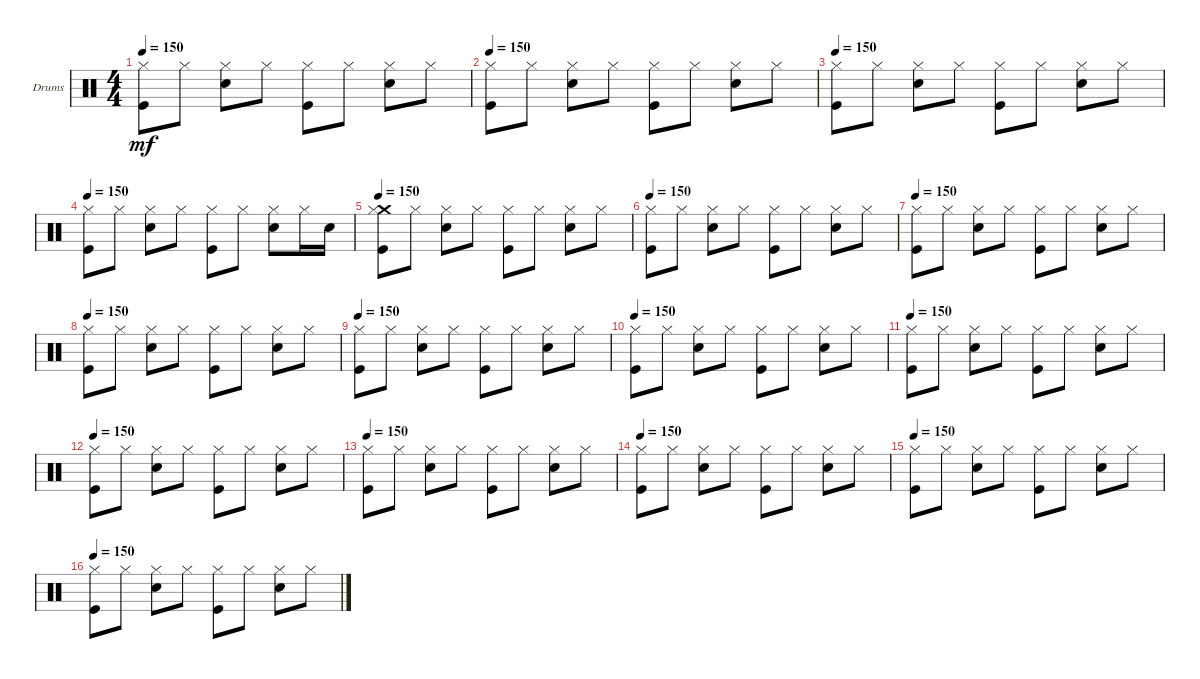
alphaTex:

\bracketExtendMode groupsimilarinstruments
\firstSystemTrackNameOrientation horizontal
\otherSystemsTrackNameOrientation horizontal
\track ("Drums" "Drums") {instrument percussion}
\staff {score}
\articulation defaults
\ts (4 4)
\tempo 150
\clef neutral
\ks c
("Kick (hit)" "Hi-Hat (closed)").8{dy mf} "Hi-Hat (closed)".8 ("Snare (hit) 2" "Hi-Hat (closed)").8 "Hi-Hat (closed)".8 ("Kick (hit)" "Hi-Hat (closed)").8 "Hi-Hat (closed)".8 ("Snare (hit) 2" "Hi-Hat (closed)").8 "Hi-Hat (closed)".8 |
\tempo 150
("Kick (hit)" "Hi-Hat (closed)").8 "Hi-Hat (closed)".8 ("Snare (hit) 2" "Hi-Hat (closed)").8 "Hi-Hat (closed)".8 ("Kick (hit)" "Hi-Hat (closed)").8 "Hi-Hat (closed)".8 ("Snare (hit) 2" "Hi-Hat (closed)").8 "Hi-Hat (closed)".8 |
\tempo 150
("Kick (hit)" "Hi-Hat (closed)").8 "Hi-Hat (closed)".8 ("Snare (hit) 2" "Hi-Hat (closed)").8 "Hi-Hat (closed)".8 ("Kick (hit)" "Hi-Hat (closed)").8 "Hi-Hat (closed)".8 ("Snare (hit) 2" "Hi-Hat (closed)").8 "Hi-Hat (closed)".8 |
\tempo 150
("Kick (hit)" "Hi-Hat (closed)").8 "Hi-Hat (closed)".8 ("Snare (hit) 2" "Hi-Hat (closed)").8 "Hi-Hat (closed)".8 ("Kick (hit)" "Hi-Hat (closed)").8 "Hi-Hat (closed)".8 ("Snare (hit) 2" "Hi-Hat (closed)").8 "Hi-Hat (closed)".16 "Snare (hit) 2".16 |
\tempo 150
("Crash medium (hit)" "Kick (hit)" "Hi-Hat (closed)").8 "Hi-Hat (closed)".8 ("Snare (hit) 2" "Hi-Hat (closed)").8 "Hi-Hat (closed)".8 ("Kick (hit)" "Hi-Hat (closed)").8 "Hi-Hat (closed)".8 ("Snare (hit) 2" "Hi-Hat (closed)").8 "Hi-Hat (closed)".8 |
\tempo 150
("Kick (hit)" "Hi-Hat (closed)").8 "Hi-Hat (closed)".8 ("Snare (hit) 2" "Hi-Hat (closed)").8 "Hi-Hat (closed)".8 ("Kick (hit)" "Hi-Hat (closed)").8 "Hi-Hat (closed)".8 ("Snare (hit) 2" "Hi-Hat (closed)").8 "Hi-Hat (closed)".8 |
\tempo 150
("Kick (hit)" "Hi-Hat (closed)").8 "Hi-Hat (closed)".8 ("Snare (hit) 2" "Hi-Hat (closed)").8 "Hi-Hat (closed)".8 ("Kick (hit)" "Hi-Hat (closed)").8 "Hi-Hat (closed)".8 ("Snare (hit) 2" "Hi-Hat (closed)").8 "Hi-Hat (closed)".8 |
\tempo 150
("Kick (hit)" "Hi-Hat (closed)").8 "Hi-Hat (closed)".8 ("Snare (hit) 2" "Hi-Hat (closed)").8 "Hi-Hat (closed)".8 ("Kick (hit)" "Hi-Hat (closed)").8 "Hi-Hat (closed)".8 ("Snare (hit) 2" "Hi-Hat (closed)").8 "Hi-Hat (closed)".8 |
\tempo 150
("Kick (hit)" "Hi-Hat (closed)").8 "Hi-Hat (closed)".8 ("Snare (hit) 2" "Hi-Hat (closed)").8 "Hi-Hat (closed)".8 ("Kick (hit)" "Hi-Hat (closed)").8 "Hi-Hat (closed)".8 ("Snare (hit) 2" "Hi-Hat (closed)").8 "Hi-Hat (closed)".8 |
\tempo 150
("Kick (hit)" "Hi-Hat (closed)").8 "Hi-Hat (closed)".8 ("Snare (hit) 2" "Hi-Hat (closed)").8 "Hi-Hat (closed)".8 ("Kick (hit)" "Hi-Hat (closed)").8 "Hi-Hat (closed)".8 ("Snare (hit) 2" "Hi-Hat (closed)").8 "Hi-Hat (closed)".8 |
\tempo 150
("Kick (hit)" "Hi-Hat (closed)").8 "Hi-Hat (closed)".8 ("Snare (hit) 2" "Hi-Hat (closed)").8 "Hi-Hat (closed)".8 ("Kick (hit)" "Hi-Hat (closed)").8 "Hi-Hat (closed)".8 ("Snare (hit) 2" "Hi-Hat (closed)").8 "Hi-Hat (closed)".8 |
\tempo 150
("Kick (hit)" "Hi-Hat (closed)").8 "Hi-Hat (closed)".8 ("Snare (hit) 2" "Hi-Hat (closed)").8 "Hi-Hat (closed)".8 ("Kick (hit)" "Hi-Hat (closed)").8 "Hi-Hat (closed)".8 ("Snare (hit) 2" "Hi-Hat (closed)").8 "Hi-Hat (closed)".8 |
\tempo 150
("Kick (hit)" "Hi-Hat (closed)").8 "Hi-Hat (closed)".8 ("Snare (hit) 2" "Hi-Hat (closed)").8 "Hi-Hat (closed)".8 ("Kick (hit)" "Hi-Hat (closed)").8 "Hi-Hat (closed)".8 ("Snare (hit) 2" "Hi-Hat (closed)").8 "Hi-Hat (closed)".8 |
\tempo 150
("Kick (hit)" "Hi-Hat (closed)").8 "Hi-Hat (closed)".8 ("Snare (hit) 2" "Hi-Hat (closed)").8 "Hi-Hat (closed)".8 ("Kick (hit)" "Hi-Hat (closed)").8 "Hi-Hat (closed)".8 ("Snare (hit) 2" "Hi-Hat (closed)").8 "Hi-Hat (closed)".8 |
\tempo 150
("Kick (hit)" "Hi-Hat (closed)").8 "Hi-Hat (closed)".8 ("Snare (hit) 2" "Hi-Hat (closed)").8 "Hi-Hat (closed)".8 ("Kick (hit)" "Hi-Hat (closed)").8 "Hi-Hat (closed)".8 ("Snare (hit) 2" "Hi-Hat (closed)").8 "Hi-Hat (closed)".8 |
\tempo 150
("Kick (hit)" "Hi-Hat (closed)").8 "Hi-Hat (closed)".8 ("Snare (hit) 2" "Hi-Hat (closed)").8 "Hi-Hat (closed)".8 ("Kick (hit)" "Hi-Hat (closed)").8 "Hi-Hat (closed)".8 ("Snare (hit) 2" "Hi-Hat (closed)").8 "Hi-Hat (closed)".8
